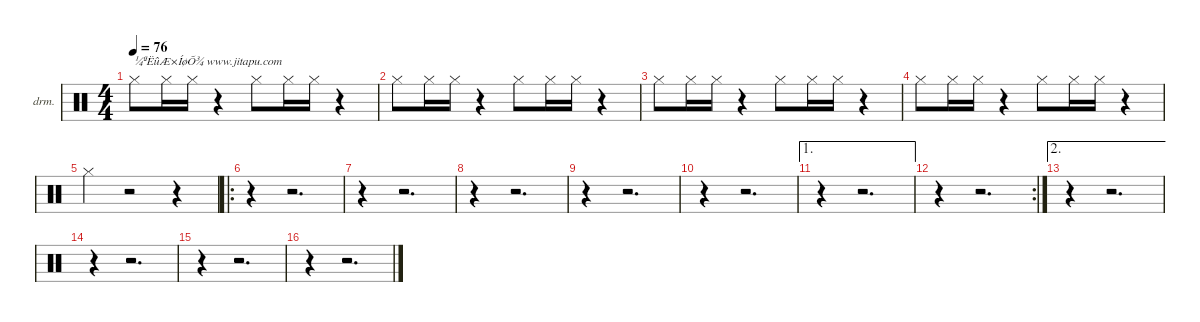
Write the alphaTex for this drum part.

\defaultSystemsLayout 4
\hideDynamics
\bracketExtendMode nobrackets
\firstSystemTrackNameOrientation horizontal
\otherSystemsTrackNameOrientation horizontal
\track ("¹ÄÉù" "drm.") {instrument percussion}
\staff {score}
\articulation defaults
\ts (4 4)
\beaming (8 2 2 2 2)
\tempo 76
\clef neutral
\ks c "Hi-Hat (closed)".8{txt "¼ªËûÆ×ÍøÕ¾ www.jitapu.com" dy f} "Hi-Hat (closed)".16 "Hi-Hat (closed)".16
r.4 "Hi-Hat (closed)".8 "Hi-Hat (closed)".16 "Hi-Hat (closed)".16 r.4 |
"Hi-Hat (closed)".8 "Hi-Hat (closed)".16 "Hi-Hat (closed)".16 r.4 "Hi-Hat (closed)".8 "Hi-Hat (closed)".16 "Hi-Hat (closed)".16 r.4 |
"Hi-Hat (closed)".8 "Hi-Hat (closed)".16 "Hi-Hat (closed)".16 r.4 "Hi-Hat (closed)".8 "Hi-Hat (closed)".16 "Hi-Hat (closed)".16 r.4 |
"Hi-Hat (closed)".8 "Hi-Hat (closed)".16 "Hi-Hat (closed)".16 r.4 "Hi-Hat (closed)".8 "Hi-Hat (closed)".16 "Hi-Hat (closed)".16 r.4 |
"Hi-Hat (closed)".4 r.2 r.4 |
\ro
r.4 r.2{d} |
r.4 r.2{d} |
r.4 r.2{d} |
r.4 r.2{d} |
r.4 r.2{d} |
\ae 1
r.4 r.2{d} |
\rc 2
r.4 r.2{d} |
\ae 2
r.4 r.2{d} |
r.4 r.2{d} |
r.4 r.2{d} |
r.4 r.2{d}
